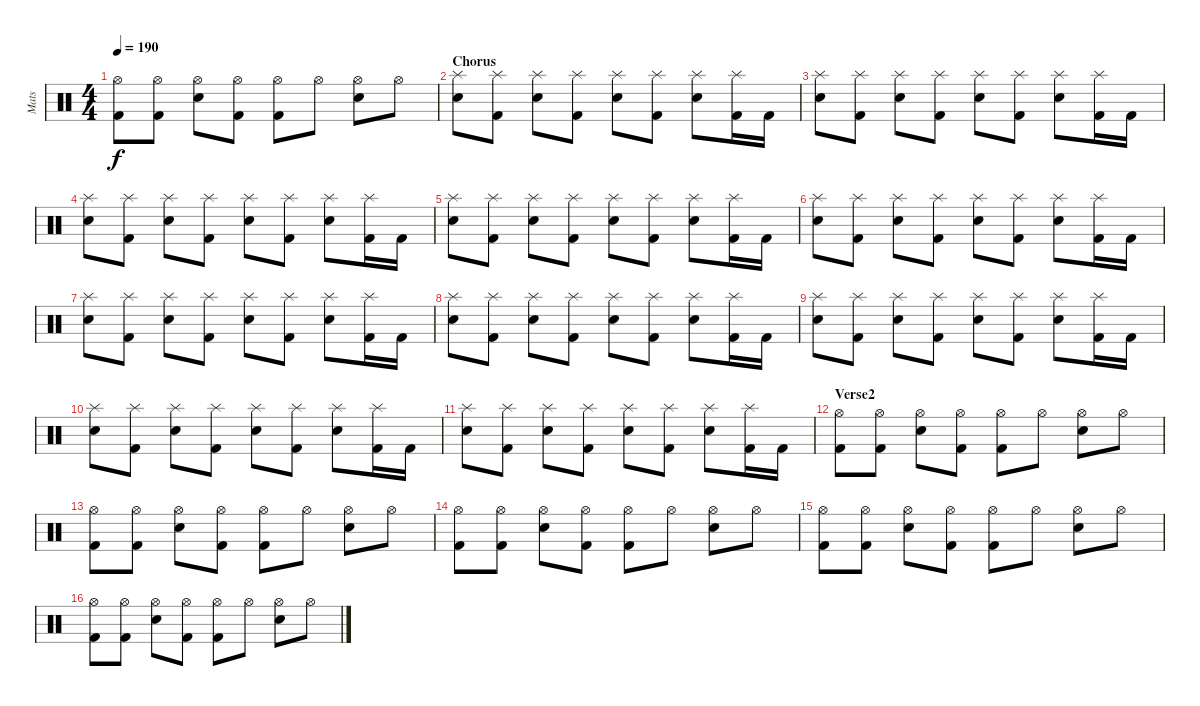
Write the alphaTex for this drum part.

\track ("Mats" "Mats") {instrument percussion}
\staff {score}
\articulation defaults
\ts (4 4)
\tempo 190
\clef neutral
\ks c
("Hi-Hat (open)" "Kick (hit) 2").8{dy f} ("Hi-Hat (open)" "Kick (hit) 2").8 ("Hi-Hat (open)" "Snare (hit) 2").8 ("Hi-Hat (open)" "Kick (hit) 2").8 ("Hi-Hat (open)" "Kick (hit) 2").8 "Hi-Hat (open)".8 ("Hi-Hat (open)" "Snare (hit) 2").8 "Hi-Hat (open)".8 |
\section ("" "Chorus")
("Splash (hit)" "Snare (hit) 2").8 ("Splash (hit)" "Kick (hit) 2").8 ("Splash (hit)" "Snare (hit) 2").8 ("Splash (hit)" "Kick (hit) 2").8 ("Splash (hit)" "Snare (hit) 2").8 ("Splash (hit)" "Kick (hit) 2").8 ("Splash (hit)" "Snare (hit) 2").8 ("Splash (hit)" "Kick (hit) 2").16 "Kick (hit) 2".16 |
("Splash (hit)" "Snare (hit) 2").8 ("Splash (hit)" "Kick (hit) 2").8 ("Splash (hit)" "Snare (hit) 2").8 ("Splash (hit)" "Kick (hit) 2").8 ("Splash (hit)" "Snare (hit) 2").8 ("Splash (hit)" "Kick (hit) 2").8 ("Splash (hit)" "Snare (hit) 2").8 ("Splash (hit)" "Kick (hit) 2").16 "Kick (hit) 2".16 |
("Splash (hit)" "Snare (hit) 2").8 ("Splash (hit)" "Kick (hit) 2").8 ("Splash (hit)" "Snare (hit) 2").8 ("Splash (hit)" "Kick (hit) 2").8 ("Splash (hit)" "Snare (hit) 2").8 ("Splash (hit)" "Kick (hit) 2").8 ("Splash (hit)" "Snare (hit) 2").8 ("Splash (hit)" "Kick (hit) 2").16 "Kick (hit) 2".16 |
("Splash (hit)" "Snare (hit) 2").8 ("Splash (hit)" "Kick (hit) 2").8 ("Splash (hit)" "Snare (hit) 2").8 ("Splash (hit)" "Kick (hit) 2").8 ("Splash (hit)" "Snare (hit) 2").8 ("Splash (hit)" "Kick (hit) 2").8 ("Splash (hit)" "Snare (hit) 2").8 ("Splash (hit)" "Kick (hit) 2").16 "Kick (hit) 2".16 |
("Splash (hit)" "Snare (hit) 2").8 ("Splash (hit)" "Kick (hit) 2").8 ("Splash (hit)" "Snare (hit) 2").8 ("Splash (hit)" "Kick (hit) 2").8 ("Splash (hit)" "Snare (hit) 2").8 ("Splash (hit)" "Kick (hit) 2").8 ("Splash (hit)" "Snare (hit) 2").8 ("Splash (hit)" "Kick (hit) 2").16 "Kick (hit) 2".16 |
("Splash (hit)" "Snare (hit) 2").8 ("Splash (hit)" "Kick (hit) 2").8 ("Splash (hit)" "Snare (hit) 2").8 ("Splash (hit)" "Kick (hit) 2").8 ("Splash (hit)" "Snare (hit) 2").8 ("Splash (hit)" "Kick (hit) 2").8 ("Splash (hit)" "Snare (hit) 2").8 ("Splash (hit)" "Kick (hit) 2").16 "Kick (hit) 2".16 |
("Splash (hit)" "Snare (hit) 2").8 ("Splash (hit)" "Kick (hit) 2").8 ("Splash (hit)" "Snare (hit) 2").8 ("Splash (hit)" "Kick (hit) 2").8 ("Splash (hit)" "Snare (hit) 2").8 ("Splash (hit)" "Kick (hit) 2").8 ("Splash (hit)" "Snare (hit) 2").8 ("Splash (hit)" "Kick (hit) 2").16 "Kick (hit) 2".16 |
("Splash (hit)" "Snare (hit) 2").8 ("Splash (hit)" "Kick (hit) 2").8 ("Splash (hit)" "Snare (hit) 2").8 ("Splash (hit)" "Kick (hit) 2").8 ("Splash (hit)" "Snare (hit) 2").8 ("Splash (hit)" "Kick (hit) 2").8 ("Splash (hit)" "Snare (hit) 2").8 ("Splash (hit)" "Kick (hit) 2").16 "Kick (hit) 2".16 |
("Splash (hit)" "Snare (hit) 2").8 ("Splash (hit)" "Kick (hit) 2").8 ("Splash (hit)" "Snare (hit) 2").8 ("Splash (hit)" "Kick (hit) 2").8 ("Splash (hit)" "Snare (hit) 2").8 ("Splash (hit)" "Kick (hit) 2").8 ("Splash (hit)" "Snare (hit) 2").8 ("Splash (hit)" "Kick (hit) 2").16 "Kick (hit) 2".16 |
("Splash (hit)" "Snare (hit) 2").8 ("Splash (hit)" "Kick (hit) 2").8 ("Splash (hit)" "Snare (hit) 2").8 ("Splash (hit)" "Kick (hit) 2").8 ("Splash (hit)" "Snare (hit) 2").8 ("Splash (hit)" "Kick (hit) 2").8 ("Splash (hit)" "Snare (hit) 2").8 ("Splash (hit)" "Kick (hit) 2").16 "Kick (hit) 2".16 |
\section ("" "Verse2")
("Hi-Hat (open)" "Kick (hit) 2").8 ("Hi-Hat (open)" "Kick (hit) 2").8 ("Hi-Hat (open)" "Snare (hit) 2").8 ("Hi-Hat (open)" "Kick (hit) 2").8 ("Hi-Hat (open)" "Kick (hit) 2").8 "Hi-Hat (open)".8 ("Hi-Hat (open)" "Snare (hit) 2").8 "Hi-Hat (open)".8 |
("Hi-Hat (open)" "Kick (hit) 2").8 ("Hi-Hat (open)" "Kick (hit) 2").8 ("Hi-Hat (open)" "Snare (hit) 2").8 ("Hi-Hat (open)" "Kick (hit) 2").8 ("Hi-Hat (open)" "Kick (hit) 2").8 "Hi-Hat (open)".8 ("Hi-Hat (open)" "Snare (hit) 2").8 "Hi-Hat (open)".8 |
("Hi-Hat (open)" "Kick (hit) 2").8 ("Hi-Hat (open)" "Kick (hit) 2").8 ("Hi-Hat (open)" "Snare (hit) 2").8 ("Hi-Hat (open)" "Kick (hit) 2").8 ("Hi-Hat (open)" "Kick (hit) 2").8 "Hi-Hat (open)".8 ("Hi-Hat (open)" "Snare (hit) 2").8 "Hi-Hat (open)".8 |
("Hi-Hat (open)" "Kick (hit) 2").8 ("Hi-Hat (open)" "Kick (hit) 2").8 ("Hi-Hat (open)" "Snare (hit) 2").8 ("Hi-Hat (open)" "Kick (hit) 2").8 ("Hi-Hat (open)" "Kick (hit) 2").8 "Hi-Hat (open)".8 ("Hi-Hat (open)" "Snare (hit) 2").8 "Hi-Hat (open)".8 |
("Hi-Hat (open)" "Kick (hit) 2").8 ("Hi-Hat (open)" "Kick (hit) 2").8 ("Hi-Hat (open)" "Snare (hit) 2").8 ("Hi-Hat (open)" "Kick (hit) 2").8 ("Hi-Hat (open)" "Kick (hit) 2").8 "Hi-Hat (open)".8 ("Hi-Hat (open)" "Snare (hit) 2").8 "Hi-Hat (open)".8
